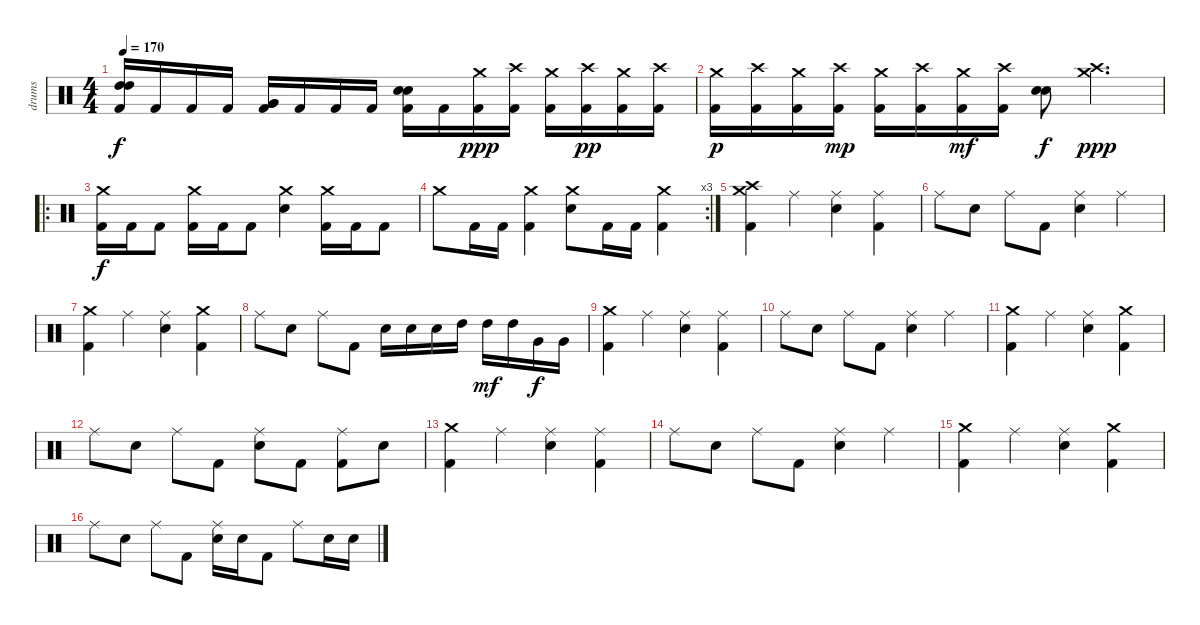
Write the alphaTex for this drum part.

\track ("drums" "drums") {instrument percussion}
\staff {score}
\articulation defaults
\ts (4 4)
\tempo 170
\clef neutral
\ks c
("High Tom (hit)" "High Tom (hit)" "Kick (hit) 2").16{dy f} "Kick (hit) 2".16 "Kick (hit) 2".16 "Kick (hit) 2".16 ("Very Low Tom (hit)" "Very Low Tom (hit)" "Kick (hit) 2").16 "Kick (hit) 2".16 "Kick (hit) 2".16 "Kick (hit) 2".16 ("Electric Snare (hit)" "Electric Snare (hit)" "Kick (hit) 2").16 "Kick (hit) 2".16 ("Crash medium (hit)" "Kick (hit) 2").16{dy ppp} ("Crash high (hit)" "Kick (hit) 2").16 ("Crash medium (hit)" "Kick (hit) 2").16 ("Crash high (hit)" "Kick (hit) 2").16{dy pp} ("Crash medium (hit)" "Kick (hit) 2").16 ("Crash high (hit)" "Kick (hit) 2").16 |
("Crash medium (hit)" "Kick (hit) 2").16{dy p} ("Crash high (hit)" "Kick (hit) 2").16 ("Crash medium (hit)" "Kick (hit) 2").16 ("Crash high (hit)" "Kick (hit) 2").16{dy mp} ("Crash medium (hit)" "Kick (hit) 2").16 ("Crash high (hit)" "Kick (hit) 2").16 ("Crash medium (hit)" "Kick (hit) 2").16{dy mf} ("Crash high (hit)" "Kick (hit) 2").16 ("Electric Snare (hit)" "Electric Snare (hit)").8{dy f} ("Crash medium (hit)" "Crash high (hit)").4{d dy ppp} |
\ro
("Crash medium (hit)" "Kick (hit) 2").16{dy f} "Kick (hit) 2".16 "Kick (hit) 2".8 ("Crash medium (hit)" "Kick (hit) 2").16 "Kick (hit) 2".16 "Kick (hit) 2".8 ("Crash medium (hit)" "Electric Snare (hit)").4 ("Crash medium (hit)" "Kick (hit) 2").16 "Kick (hit) 2".16 "Kick (hit) 2".8 |
\rc 3 "Crash medium (hit)".8 "Kick (hit) 2".16 "Kick (hit) 2".16
("Crash medium (hit)" "Kick (hit) 2").4 ("Crash medium (hit)" "Electric Snare (hit)").8 "Kick (hit) 2".16 "Kick (hit) 2".16 ("Crash medium (hit)" "Kick (hit) 2").4 |
("Crash medium (hit)" "Crash high (hit)" "Kick (hit) 2").4 "Ride (middle)".4 ("Ride (middle)" "Electric Snare (hit)").4 ("Ride (middle)" "Kick (hit) 2").4 |
"Ride (middle)".8 "Electric Snare (hit)".8 "Ride (middle)".8 "Kick (hit) 2".8 ("Ride (middle)" "Electric Snare (hit)").4 "Ride (middle)".4 |
("Crash medium (hit)" "Kick (hit) 2").4 "Ride (middle)".4 ("Ride (middle)" "Electric Snare (hit)").4 ("Crash medium (hit)" "Kick (hit) 2").4 |
"Ride (middle)".8 "Electric Snare (hit)".8 "Ride (middle)".8 "Kick (hit) 2".8 "Electric Snare (hit)".16 "Electric Snare (hit)".16 "Electric Snare (hit)".16 "High Tom (hit)".16 "High Tom (hit)".16{dy mf} "High Tom (hit)".16 "Very Low Tom (hit)".16{dy f} "Very Low Tom (hit)".16 |
("Crash medium (hit)" "Kick (hit) 2").4 "Ride (middle)".4 ("Ride (middle)" "Electric Snare (hit)").4 ("Ride (middle)" "Kick (hit) 2").4 |
"Ride (middle)".8 "Electric Snare (hit)".8 "Ride (middle)".8 "Kick (hit) 2".8 ("Ride (middle)" "Electric Snare (hit)").4 "Ride (middle)".4 |
("Crash medium (hit)" "Kick (hit) 2").4 "Ride (middle)".4 ("Ride (middle)" "Electric Snare (hit)").4 ("Crash medium (hit)" "Kick (hit) 2").4 |
"Ride (middle)".8 "Electric Snare (hit)".8 "Ride (middle)".8 "Kick (hit) 2".8 ("Ride (middle)" "Electric Snare (hit)").8 "Kick (hit) 2".8 ("Ride (middle)" "Kick (hit) 2").8 "Electric Snare (hit)".8 |
("Crash medium (hit)" "Kick (hit) 2").4 "Ride (middle)".4 ("Ride (middle)" "Electric Snare (hit)").4 ("Ride (middle)" "Kick (hit) 2").4 |
"Ride (middle)".8 "Electric Snare (hit)".8 "Ride (middle)".8 "Kick (hit) 2".8 ("Ride (middle)" "Electric Snare (hit)").4 "Ride (middle)".4 |
("Crash medium (hit)" "Kick (hit) 2").4 "Ride (middle)".4 ("Ride (middle)" "Electric Snare (hit)").4 ("Crash medium (hit)" "Kick (hit) 2").4 |
"Ride (middle)".8 "Electric Snare (hit)".8 "Ride (middle)".8 "Kick (hit) 2".8 ("Ride (middle)" "Electric Snare (hit)").16 "Electric Snare (hit)".16 "Kick (hit) 2".8 "Ride (middle)".8 "Electric Snare (hit)".16 "Electric Snare (hit)".16
